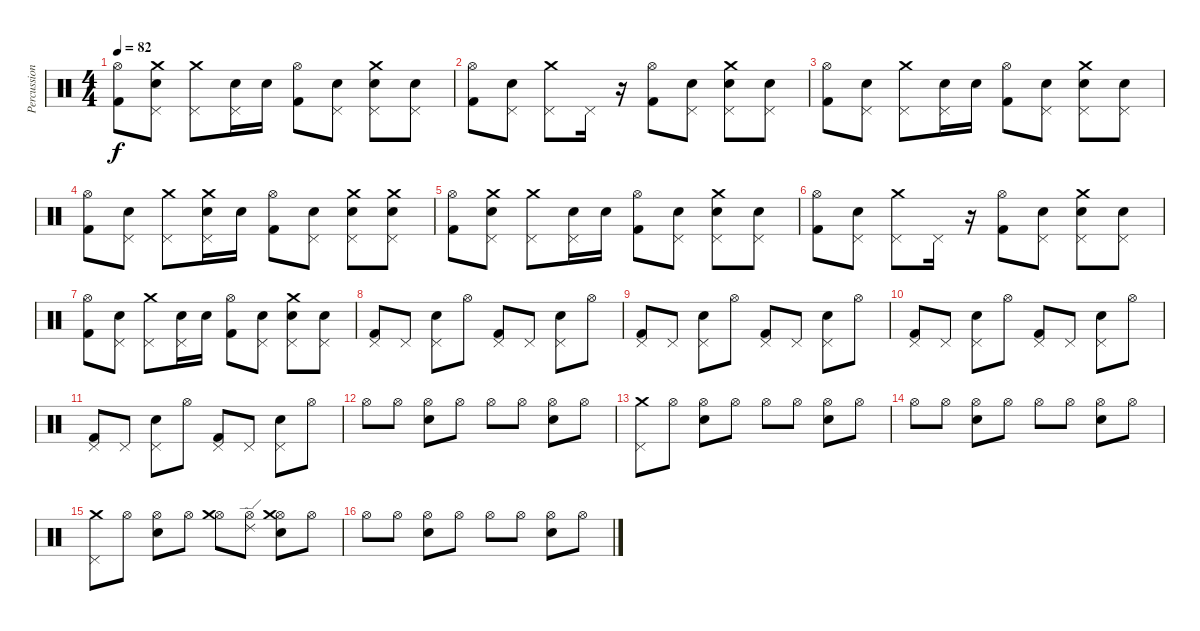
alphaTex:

\track ("Percussion" "Percussion") {instrument percussion}
\staff {score}
\articulation defaults
\ts (4 4)
\tempo 82
\clef neutral
\ks c
("Kick (hit) 2" "Hi-Hat (open)").8{dy f} ("Crash medium (hit)" "Pedal Hi-Hat (hit)" "Snare (hit) 2").8 ("Crash medium (hit)" "Pedal Hi-Hat (hit)").8 ("Pedal Hi-Hat (hit)" "Snare (hit) 2").16 "Snare (hit) 2".16 ("Kick (hit) 2" "Hi-Hat (open)").8 ("Pedal Hi-Hat (hit)" "Snare (hit) 2").8 ("Crash medium (hit)" "Pedal Hi-Hat (hit)" "Snare (hit) 2").8 ("Pedal Hi-Hat (hit)" "Snare (hit) 2").8 |
("Kick (hit) 2" "Hi-Hat (open)").8 ("Pedal Hi-Hat (hit)" "Snare (hit) 2").8 ("Crash medium (hit)" "Pedal Hi-Hat (hit)").8 "Pedal Hi-Hat (hit)".16 r.16 ("Kick (hit) 2" "Hi-Hat (open)").8 ("Pedal Hi-Hat (hit)" "Snare (hit) 2").8 ("Crash medium (hit)" "Pedal Hi-Hat (hit)" "Snare (hit) 2").8 ("Pedal Hi-Hat (hit)" "Snare (hit) 2").8 |
("Kick (hit) 2" "Hi-Hat (open)").8 ("Pedal Hi-Hat (hit)" "Snare (hit) 2").8 ("Crash medium (hit)" "Pedal Hi-Hat (hit)").8 ("Pedal Hi-Hat (hit)" "Snare (hit) 2").16 "Snare (hit) 2".16 ("Kick (hit) 2" "Hi-Hat (open)").8 ("Pedal Hi-Hat (hit)" "Snare (hit) 2").8 ("Crash medium (hit)" "Pedal Hi-Hat (hit)" "Snare (hit) 2").8 ("Pedal Hi-Hat (hit)" "Snare (hit) 2").8 |
("Kick (hit) 2" "Hi-Hat (open)").8 ("Pedal Hi-Hat (hit)" "Snare (hit) 2").8 ("Crash medium (hit)" "Pedal Hi-Hat (hit)").8 ("Crash medium (hit)" "Pedal Hi-Hat (hit)" "Snare (hit) 2").16 "Snare (hit) 2".16 ("Kick (hit) 2" "Hi-Hat (open)").8 ("Pedal Hi-Hat (hit)" "Snare (hit) 2").8 ("Crash medium (hit)" "Pedal Hi-Hat (hit)" "Snare (hit) 2").8 ("Crash medium (hit)" "Pedal Hi-Hat (hit)" "Snare (hit) 2").8 |
("Kick (hit) 2" "Hi-Hat (open)").8 ("Crash medium (hit)" "Pedal Hi-Hat (hit)" "Snare (hit) 2").8 ("Crash medium (hit)" "Pedal Hi-Hat (hit)").8 ("Pedal Hi-Hat (hit)" "Snare (hit) 2").16 "Snare (hit) 2".16 ("Kick (hit) 2" "Hi-Hat (open)").8 ("Pedal Hi-Hat (hit)" "Snare (hit) 2").8 ("Crash medium (hit)" "Pedal Hi-Hat (hit)" "Snare (hit) 2").8 ("Pedal Hi-Hat (hit)" "Snare (hit) 2").8 |
("Kick (hit) 2" "Hi-Hat (open)").8 ("Pedal Hi-Hat (hit)" "Snare (hit) 2").8 ("Crash medium (hit)" "Pedal Hi-Hat (hit)").8 "Pedal Hi-Hat (hit)".16 r.16 ("Kick (hit) 2" "Hi-Hat (open)").8 ("Pedal Hi-Hat (hit)" "Snare (hit) 2").8 ("Crash medium (hit)" "Pedal Hi-Hat (hit)" "Snare (hit) 2").8 ("Pedal Hi-Hat (hit)" "Snare (hit) 2").8 |
("Kick (hit) 2" "Hi-Hat (open)").8 ("Pedal Hi-Hat (hit)" "Snare (hit) 2").8 ("Crash medium (hit)" "Pedal Hi-Hat (hit)").8 ("Pedal Hi-Hat (hit)" "Snare (hit) 2").16 "Snare (hit) 2".16 ("Kick (hit) 2" "Hi-Hat (open)").8 ("Pedal Hi-Hat (hit)" "Snare (hit) 2").8 ("Crash medium (hit)" "Pedal Hi-Hat (hit)" "Snare (hit) 2").8 ("Pedal Hi-Hat (hit)" "Snare (hit) 2").8 |
("Kick (hit) 2" "Pedal Hi-Hat (hit)").8 "Pedal Hi-Hat (hit)".8 ("Pedal Hi-Hat (hit)" "Snare (hit) 2").8 "Hi-Hat (open)".8 ("Kick (hit) 2" "Pedal Hi-Hat (hit)").8 "Pedal Hi-Hat (hit)".8 ("Pedal Hi-Hat (hit)" "Snare (hit) 2").8 "Hi-Hat (open)".8 |
("Kick (hit) 2" "Pedal Hi-Hat (hit)").8 "Pedal Hi-Hat (hit)".8 ("Pedal Hi-Hat (hit)" "Snare (hit) 2").8 "Hi-Hat (open)".8 ("Kick (hit) 2" "Pedal Hi-Hat (hit)").8 "Pedal Hi-Hat (hit)".8 ("Pedal Hi-Hat (hit)" "Snare (hit) 2").8 "Hi-Hat (open)".8 |
("Kick (hit) 2" "Pedal Hi-Hat (hit)").8 "Pedal Hi-Hat (hit)".8 ("Pedal Hi-Hat (hit)" "Snare (hit) 2").8 "Hi-Hat (open)".8 ("Kick (hit) 2" "Pedal Hi-Hat (hit)").8 "Pedal Hi-Hat (hit)".8 ("Pedal Hi-Hat (hit)" "Snare (hit) 2").8 "Hi-Hat (open)".8 |
("Kick (hit) 2" "Pedal Hi-Hat (hit)").8 "Pedal Hi-Hat (hit)".8 ("Pedal Hi-Hat (hit)" "Snare (hit) 2").8 "Hi-Hat (open)".8 ("Kick (hit) 2" "Pedal Hi-Hat (hit)").8 "Pedal Hi-Hat (hit)".8 ("Pedal Hi-Hat (hit)" "Snare (hit) 2").8 "Hi-Hat (open)".8 |
"Hi-Hat (open)".8 "Hi-Hat (open)".8 ("Hi-Hat (open)" "Snare (hit) 2").8 "Hi-Hat (open)".8 "Hi-Hat (open)".8 "Hi-Hat (open)".8 ("Hi-Hat (open)" "Snare (hit) 2").8 "Hi-Hat (open)".8 |
("Pedal Hi-Hat (hit)" "Crash medium (hit)").8 "Hi-Hat (open)".8 ("Hi-Hat (open)" "Snare (hit) 2").8 "Hi-Hat (open)".8 "Hi-Hat (open)".8 "Hi-Hat (open)".8 ("Hi-Hat (open)" "Snare (hit) 2").8 "Hi-Hat (open)".8 |
"Hi-Hat (open)".8 "Hi-Hat (open)".8 ("Hi-Hat (open)" "Snare (hit) 2").8 "Hi-Hat (open)".8 "Hi-Hat (open)".8 "Hi-Hat (open)".8 ("Hi-Hat (open)" "Snare (hit) 2").8 "Hi-Hat (open)".8 |
("Pedal Hi-Hat (hit)" "Crash medium (hit)").8 "Hi-Hat (open)".8 ("Hi-Hat (open)" "Snare (hit) 2").8 "Hi-Hat (open)".8 ("Hi-Hat (open)" "Crash medium (hit)").8 ("Hi-Hat (open)" "Ride (edge) 2").8 ("Hi-Hat (open)" "Snare (hit) 2" "Crash medium (hit)").8 "Hi-Hat (open)".8 |
"Hi-Hat (open)".8 "Hi-Hat (open)".8 ("Hi-Hat (open)" "Snare (hit) 2").8 "Hi-Hat (open)".8 "Hi-Hat (open)".8 "Hi-Hat (open)".8 ("Hi-Hat (open)" "Snare (hit) 2").8 "Hi-Hat (open)".8
